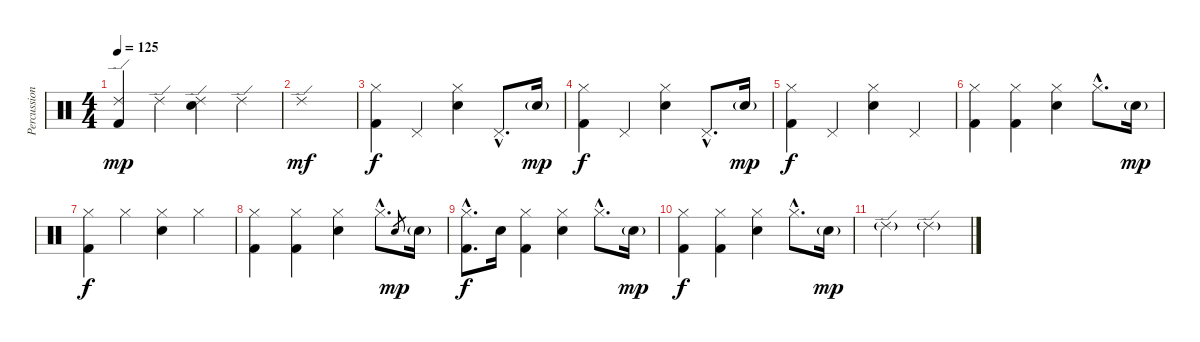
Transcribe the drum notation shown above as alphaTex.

\track ("Percussion - Or" "Percussion") {instrument percussion}
\staff {score}
\articulation defaults
\ts (4 4)
\tempo 125
\clef neutral
\ks c
("Ride (edge) 2" "Kick (hit) 2").4{dy mp} "Ride (edge) 2".4 ("Ride (edge) 2" "Snare (hit) 2").4 "Ride (edge) 2".4 |
"Ride (edge) 2".1{dy mf} |
("Hi-Hat (closed)" "Kick (hit) 2").4{dy f} "Pedal Hi-Hat (hit)".4 ("Hi-Hat (closed)" "Snare (hit) 2").4 "Pedal Hi-Hat (hit)"{hac}.8{d} "Snare (hit) 2"{g}.16{dy mp} |
("Hi-Hat (closed)" "Kick (hit) 2").4{dy f} "Pedal Hi-Hat (hit)".4 ("Hi-Hat (closed)" "Snare (hit) 2").4 "Pedal Hi-Hat (hit)"{hac}.8{d} "Snare (hit) 2"{g}.16{dy mp} |
("Hi-Hat (closed)" "Kick (hit) 2").4{dy f} "Pedal Hi-Hat (hit)".4 ("Hi-Hat (closed)" "Snare (hit) 2").4 "Pedal Hi-Hat (hit)".4 |
("Hi-Hat (closed)" "Kick (hit) 2").4 ("Hi-Hat (closed)" "Kick (hit) 2").4 ("Hi-Hat (closed)" "Snare (hit) 2").4 "Hi-Hat (closed)"{hac}.8{d} "Snare (hit) 2"{g}.16{dy mp} |
("Hi-Hat (closed)" "Kick (hit) 2").4{dy f} "Hi-Hat (closed)".4 ("Hi-Hat (closed)" "Snare (hit) 2").4 "Hi-Hat (closed)".4 |
("Hi-Hat (closed)" "Kick (hit) 2").4 ("Hi-Hat (closed)" "Kick (hit) 2").4 ("Hi-Hat (closed)" "Snare (hit) 2").4 "Hi-Hat (closed)"{hac}.8{d} "Snare (hit) 2".8{gr dy mp} "Snare (hit) 2"{g}.16 |
("Hi-Hat (closed)"{hac} "Kick (hit) 2"{hac}).8{d dy f} "Snare (hit) 2".16 ("Hi-Hat (closed)" "Kick (hit) 2").4 ("Hi-Hat (closed)" "Snare (hit) 2").4 "Hi-Hat (closed)"{hac}.8{d} "Snare (hit) 2"{g}.16{dy mp} |
("Hi-Hat (closed)" "Kick (hit) 2").4{dy f} ("Hi-Hat (closed)" "Kick (hit) 2").4 ("Hi-Hat (closed)" "Snare (hit) 2").4 "Hi-Hat (closed)"{hac}.8{d} "Snare (hit) 2"{g}.16{dy mp} |
"Ride (edge) 2"{g}.2 "Ride (edge) 2"{g}.2
